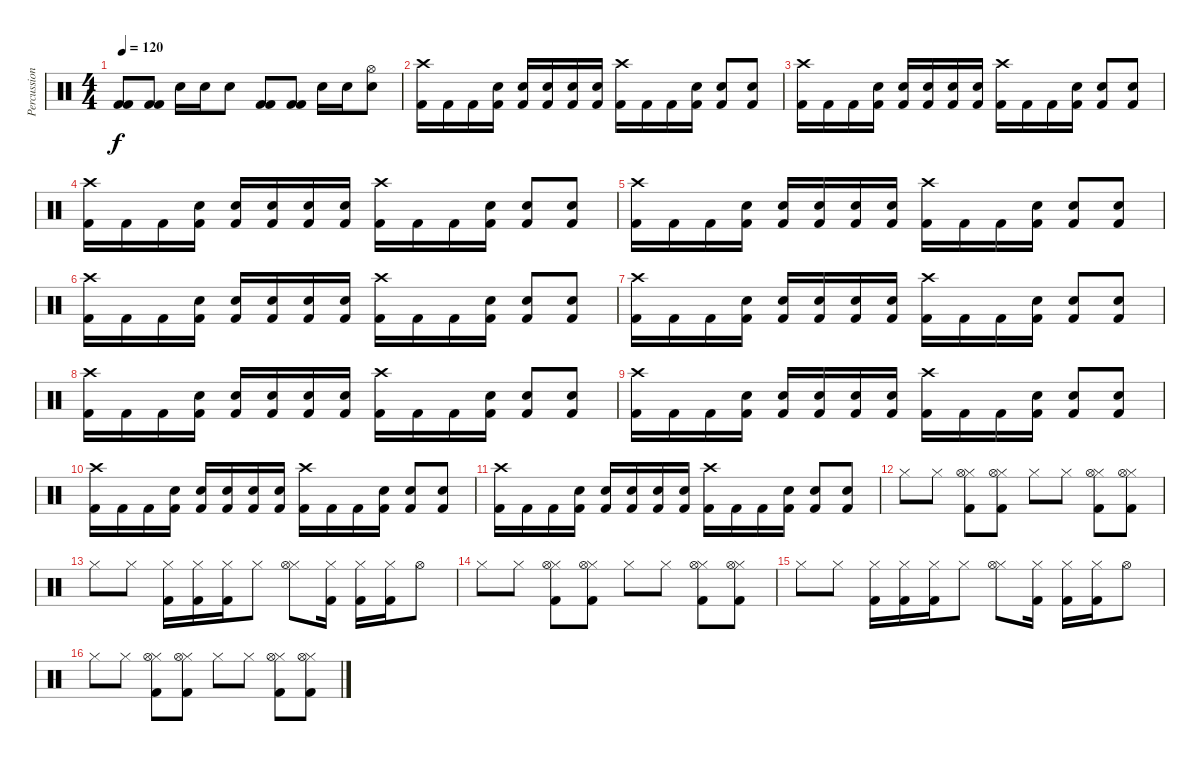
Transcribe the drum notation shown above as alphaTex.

\track ("Percussioni" "Percussion") {instrument percussion}
\staff {score}
\articulation defaults
\ts (4 4)
\tempo 120
\clef neutral
\ks c
("Kick (hit) 2" "Kick (hit) 2").8{dy f} ("Kick (hit) 2" "Kick (hit) 2").8 "Electric Snare (hit)".16 "Electric Snare (hit)".16 "Electric Snare (hit)".8 ("Kick (hit) 2" "Kick (hit) 2").8 ("Kick (hit) 2" "Kick (hit) 2").8 "Electric Snare (hit)".16 "Electric Snare (hit)".16 ("Electric Snare (hit)" "Hi-Hat (open)").8 |
("Kick (hit) 2" "Crash high (hit)").16 "Kick (hit) 2".16 "Kick (hit) 2".16 ("Kick (hit) 2" "Electric Snare (hit)").16 ("Kick (hit) 2" "Electric Snare (hit)").16 ("Kick (hit) 2" "Electric Snare (hit)").16 ("Kick (hit) 2" "Electric Snare (hit)").16 ("Kick (hit) 2" "Electric Snare (hit)").16 ("Kick (hit) 2" "Crash high (hit)").16 "Kick (hit) 2".16 "Kick (hit) 2".16 ("Kick (hit) 2" "Electric Snare (hit)").16 ("Kick (hit) 2" "Electric Snare (hit)").8 ("Kick (hit) 2" "Electric Snare (hit)").8 |
("Kick (hit) 2" "Crash high (hit)").16 "Kick (hit) 2".16 "Kick (hit) 2".16 ("Kick (hit) 2" "Electric Snare (hit)").16 ("Kick (hit) 2" "Electric Snare (hit)").16 ("Kick (hit) 2" "Electric Snare (hit)").16 ("Kick (hit) 2" "Electric Snare (hit)").16 ("Kick (hit) 2" "Electric Snare (hit)").16 ("Kick (hit) 2" "Crash high (hit)").16 "Kick (hit) 2".16 "Kick (hit) 2".16 ("Kick (hit) 2" "Electric Snare (hit)").16 ("Kick (hit) 2" "Electric Snare (hit)").8 ("Kick (hit) 2" "Electric Snare (hit)").8 |
("Kick (hit) 2" "Crash high (hit)").16 "Kick (hit) 2".16 "Kick (hit) 2".16 ("Kick (hit) 2" "Electric Snare (hit)").16 ("Kick (hit) 2" "Electric Snare (hit)").16 ("Kick (hit) 2" "Electric Snare (hit)").16 ("Kick (hit) 2" "Electric Snare (hit)").16 ("Kick (hit) 2" "Electric Snare (hit)").16 ("Kick (hit) 2" "Crash high (hit)").16 "Kick (hit) 2".16 "Kick (hit) 2".16 ("Kick (hit) 2" "Electric Snare (hit)").16 ("Kick (hit) 2" "Electric Snare (hit)").8 ("Kick (hit) 2" "Electric Snare (hit)").8 |
("Kick (hit) 2" "Crash high (hit)").16 "Kick (hit) 2".16 "Kick (hit) 2".16 ("Kick (hit) 2" "Electric Snare (hit)").16 ("Kick (hit) 2" "Electric Snare (hit)").16 ("Kick (hit) 2" "Electric Snare (hit)").16 ("Kick (hit) 2" "Electric Snare (hit)").16 ("Kick (hit) 2" "Electric Snare (hit)").16 ("Kick (hit) 2" "Crash high (hit)").16 "Kick (hit) 2".16 "Kick (hit) 2".16 ("Kick (hit) 2" "Electric Snare (hit)").16 ("Kick (hit) 2" "Electric Snare (hit)").8 ("Kick (hit) 2" "Electric Snare (hit)").8 |
("Kick (hit) 2" "Crash high (hit)").16 "Kick (hit) 2".16 "Kick (hit) 2".16 ("Kick (hit) 2" "Electric Snare (hit)").16 ("Kick (hit) 2" "Electric Snare (hit)").16 ("Kick (hit) 2" "Electric Snare (hit)").16 ("Kick (hit) 2" "Electric Snare (hit)").16 ("Kick (hit) 2" "Electric Snare (hit)").16 ("Kick (hit) 2" "Crash high (hit)").16 "Kick (hit) 2".16 "Kick (hit) 2".16 ("Kick (hit) 2" "Electric Snare (hit)").16 ("Kick (hit) 2" "Electric Snare (hit)").8 ("Kick (hit) 2" "Electric Snare (hit)").8 |
("Kick (hit) 2" "Crash high (hit)").16 "Kick (hit) 2".16 "Kick (hit) 2".16 ("Kick (hit) 2" "Electric Snare (hit)").16 ("Kick (hit) 2" "Electric Snare (hit)").16 ("Kick (hit) 2" "Electric Snare (hit)").16 ("Kick (hit) 2" "Electric Snare (hit)").16 ("Kick (hit) 2" "Electric Snare (hit)").16 ("Kick (hit) 2" "Crash high (hit)").16 "Kick (hit) 2".16 "Kick (hit) 2".16 ("Kick (hit) 2" "Electric Snare (hit)").16 ("Kick (hit) 2" "Electric Snare (hit)").8 ("Kick (hit) 2" "Electric Snare (hit)").8 |
("Kick (hit) 2" "Crash high (hit)").16 "Kick (hit) 2".16 "Kick (hit) 2".16 ("Kick (hit) 2" "Electric Snare (hit)").16 ("Kick (hit) 2" "Electric Snare (hit)").16 ("Kick (hit) 2" "Electric Snare (hit)").16 ("Kick (hit) 2" "Electric Snare (hit)").16 ("Kick (hit) 2" "Electric Snare (hit)").16 ("Kick (hit) 2" "Crash high (hit)").16 "Kick (hit) 2".16 "Kick (hit) 2".16 ("Kick (hit) 2" "Electric Snare (hit)").16 ("Kick (hit) 2" "Electric Snare (hit)").8 ("Kick (hit) 2" "Electric Snare (hit)").8 |
("Kick (hit) 2" "Crash high (hit)").16 "Kick (hit) 2".16 "Kick (hit) 2".16 ("Kick (hit) 2" "Electric Snare (hit)").16 ("Kick (hit) 2" "Electric Snare (hit)").16 ("Kick (hit) 2" "Electric Snare (hit)").16 ("Kick (hit) 2" "Electric Snare (hit)").16 ("Kick (hit) 2" "Electric Snare (hit)").16 ("Kick (hit) 2" "Crash high (hit)").16 "Kick (hit) 2".16 "Kick (hit) 2".16 ("Kick (hit) 2" "Electric Snare (hit)").16 ("Kick (hit) 2" "Electric Snare (hit)").8 ("Kick (hit) 2" "Electric Snare (hit)").8 |
("Kick (hit) 2" "Crash high (hit)").16 "Kick (hit) 2".16 "Kick (hit) 2".16 ("Kick (hit) 2" "Electric Snare (hit)").16 ("Kick (hit) 2" "Electric Snare (hit)").16 ("Kick (hit) 2" "Electric Snare (hit)").16 ("Kick (hit) 2" "Electric Snare (hit)").16 ("Kick (hit) 2" "Electric Snare (hit)").16 ("Kick (hit) 2" "Crash high (hit)").16 "Kick (hit) 2".16 "Kick (hit) 2".16 ("Kick (hit) 2" "Electric Snare (hit)").16 ("Kick (hit) 2" "Electric Snare (hit)").8 ("Kick (hit) 2" "Electric Snare (hit)").8 |
("Kick (hit) 2" "Crash high (hit)").16 "Kick (hit) 2".16 "Kick (hit) 2".16 ("Kick (hit) 2" "Electric Snare (hit)").16 ("Kick (hit) 2" "Electric Snare (hit)").16 ("Kick (hit) 2" "Electric Snare (hit)").16 ("Kick (hit) 2" "Electric Snare (hit)").16 ("Kick (hit) 2" "Electric Snare (hit)").16 ("Kick (hit) 2" "Crash high (hit)").16 "Kick (hit) 2".16 "Kick (hit) 2".16 ("Kick (hit) 2" "Electric Snare (hit)").16 ("Kick (hit) 2" "Electric Snare (hit)").8 ("Kick (hit) 2" "Electric Snare (hit)").8 |
"Hi-Hat (closed)".8 "Hi-Hat (closed)".8 ("Hi-Hat (closed)" "Hi-Hat (open)" "Kick (hit) 2").8 ("Hi-Hat (closed)" "Hi-Hat (open)" "Kick (hit) 2").8 "Hi-Hat (closed)".8 "Hi-Hat (closed)".8 ("Hi-Hat (closed)" "Hi-Hat (open)" "Kick (hit) 2").8 ("Hi-Hat (closed)" "Hi-Hat (open)" "Kick (hit) 2").8 |
"Hi-Hat (closed)".8 "Hi-Hat (closed)".8 ("Hi-Hat (closed)" "Kick (hit) 2").16 ("Hi-Hat (closed)" "Kick (hit) 2").16 ("Hi-Hat (closed)" "Kick (hit) 2").16 "Hi-Hat (closed)".8 ("Hi-Hat (closed)" "Hi-Hat (open)").8 ("Hi-Hat (closed)" "Kick (hit) 2").16 ("Hi-Hat (closed)" "Kick (hit) 2").16 ("Hi-Hat (closed)" "Kick (hit) 2").16 "Hi-Hat (open)".8 |
"Hi-Hat (closed)".8 "Hi-Hat (closed)".8 ("Hi-Hat (closed)" "Hi-Hat (open)" "Kick (hit) 2").8 ("Hi-Hat (closed)" "Hi-Hat (open)" "Kick (hit) 2").8 "Hi-Hat (closed)".8 "Hi-Hat (closed)".8 ("Hi-Hat (closed)" "Hi-Hat (open)" "Kick (hit) 2").8 ("Hi-Hat (closed)" "Hi-Hat (open)" "Kick (hit) 2").8 |
"Hi-Hat (closed)".8 "Hi-Hat (closed)".8 ("Hi-Hat (closed)" "Kick (hit) 2").16 ("Hi-Hat (closed)" "Kick (hit) 2").16 ("Hi-Hat (closed)" "Kick (hit) 2").16 "Hi-Hat (closed)".8 ("Hi-Hat (closed)" "Hi-Hat (open)").8 ("Hi-Hat (closed)" "Kick (hit) 2").16 ("Hi-Hat (closed)" "Kick (hit) 2").16 ("Hi-Hat (closed)" "Kick (hit) 2").16 "Hi-Hat (open)".8 |
"Hi-Hat (closed)".8 "Hi-Hat (closed)".8 ("Hi-Hat (closed)" "Hi-Hat (open)" "Kick (hit) 2").8 ("Hi-Hat (closed)" "Hi-Hat (open)" "Kick (hit) 2").8 "Hi-Hat (closed)".8 "Hi-Hat (closed)".8 ("Hi-Hat (closed)" "Hi-Hat (open)" "Kick (hit) 2").8 ("Hi-Hat (closed)" "Hi-Hat (open)" "Kick (hit) 2").8
